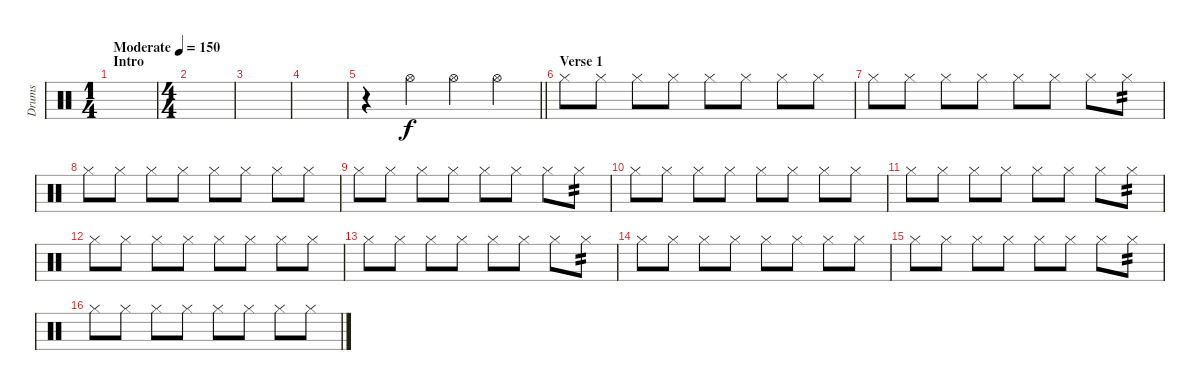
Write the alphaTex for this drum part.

\track ("Drums" "Drums") {instrument percussion}
\staff {score}
\articulation defaults
\ts (1 4)
\section ("" "Intro")
\tempo (150 "Moderate")
\clef neutral
\ks c
|
\ts (4 4)
|
|
|
\barLineRight lightlight
r.4 "Hi-Hat (open)".4 "Hi-Hat (open)".4 "Hi-Hat (open)".4 |
\section ("" "Verse 1")
"Hi-Hat (closed)".8 "Hi-Hat (closed)".8 "Hi-Hat (closed)".8 "Hi-Hat (closed)".8 "Hi-Hat (closed)".8 "Hi-Hat (closed)".8 "Hi-Hat (closed)".8 "Hi-Hat (closed)".8 |
"Hi-Hat (closed)".8 "Hi-Hat (closed)".8 "Hi-Hat (closed)".8 "Hi-Hat (closed)".8 "Hi-Hat (closed)".8 "Hi-Hat (closed)".8 "Hi-Hat (closed)".8 "Hi-Hat (closed)".8{tp 2} |
"Hi-Hat (closed)".8 "Hi-Hat (closed)".8 "Hi-Hat (closed)".8 "Hi-Hat (closed)".8 "Hi-Hat (closed)".8 "Hi-Hat (closed)".8 "Hi-Hat (closed)".8 "Hi-Hat (closed)".8 |
"Hi-Hat (closed)".8 "Hi-Hat (closed)".8 "Hi-Hat (closed)".8 "Hi-Hat (closed)".8 "Hi-Hat (closed)".8 "Hi-Hat (closed)".8 "Hi-Hat (closed)".8 "Hi-Hat (closed)".8{tp 2} |
"Hi-Hat (closed)".8 "Hi-Hat (closed)".8 "Hi-Hat (closed)".8 "Hi-Hat (closed)".8 "Hi-Hat (closed)".8 "Hi-Hat (closed)".8 "Hi-Hat (closed)".8 "Hi-Hat (closed)".8 |
"Hi-Hat (closed)".8 "Hi-Hat (closed)".8 "Hi-Hat (closed)".8 "Hi-Hat (closed)".8 "Hi-Hat (closed)".8 "Hi-Hat (closed)".8 "Hi-Hat (closed)".8 "Hi-Hat (closed)".8{tp 2} |
"Hi-Hat (closed)".8 "Hi-Hat (closed)".8 "Hi-Hat (closed)".8 "Hi-Hat (closed)".8 "Hi-Hat (closed)".8 "Hi-Hat (closed)".8 "Hi-Hat (closed)".8 "Hi-Hat (closed)".8 |
"Hi-Hat (closed)".8 "Hi-Hat (closed)".8 "Hi-Hat (closed)".8 "Hi-Hat (closed)".8 "Hi-Hat (closed)".8 "Hi-Hat (closed)".8 "Hi-Hat (closed)".8 "Hi-Hat (closed)".8{tp 2} |
"Hi-Hat (closed)".8 "Hi-Hat (closed)".8 "Hi-Hat (closed)".8 "Hi-Hat (closed)".8 "Hi-Hat (closed)".8 "Hi-Hat (closed)".8 "Hi-Hat (closed)".8 "Hi-Hat (closed)".8 |
"Hi-Hat (closed)".8 "Hi-Hat (closed)".8 "Hi-Hat (closed)".8 "Hi-Hat (closed)".8 "Hi-Hat (closed)".8 "Hi-Hat (closed)".8 "Hi-Hat (closed)".8 "Hi-Hat (closed)".8{tp 2} |
"Hi-Hat (closed)".8 "Hi-Hat (closed)".8 "Hi-Hat (closed)".8 "Hi-Hat (closed)".8 "Hi-Hat (closed)".8 "Hi-Hat (closed)".8 "Hi-Hat (closed)".8 "Hi-Hat (closed)".8
